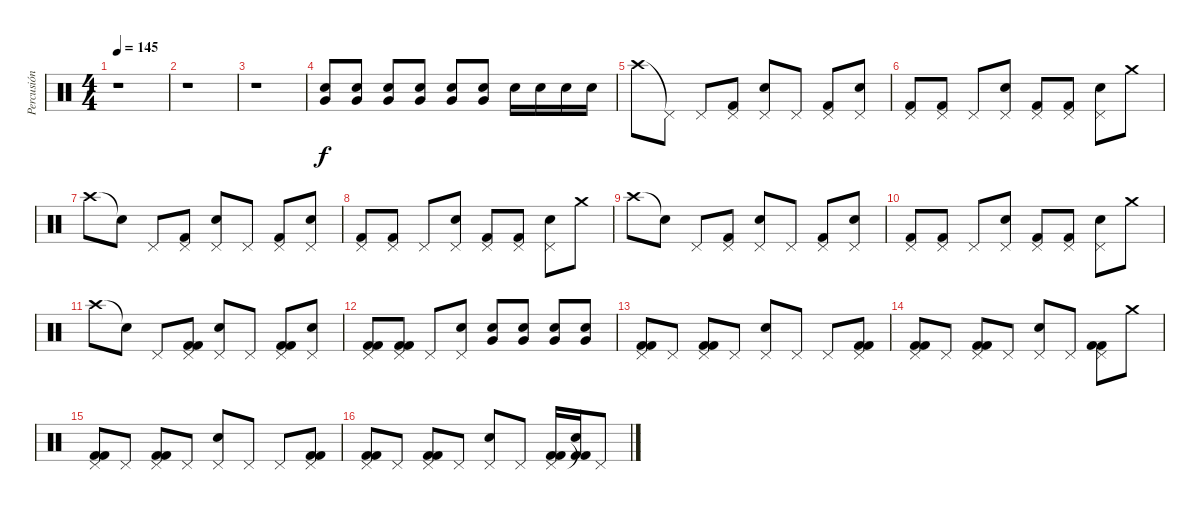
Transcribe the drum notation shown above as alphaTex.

\track ("Percusión" "Percusión") {instrument percussion}
\staff {score}
\articulation defaults
\ts (4 4)
\tempo 145
\clef neutral
\ks c
r.1{dy f} |
r.1 |
r.1 |
("Snare (hit) 2" "Very Low Tom (hit)").8 ("Snare (hit) 2" "Very Low Tom (hit)").8 ("Snare (hit) 2" "Very Low Tom (hit)").8 ("Snare (hit) 2" "Very Low Tom (hit)").8 ("Snare (hit) 2" "Very Low Tom (hit)").8 ("Snare (hit) 2" "Very Low Tom (hit)").8 "Snare (hit) 2".16 "Snare (hit) 2".16 "Snare (hit) 2".16 "Snare (hit) 2".16 |
"Crash high (hit)".8 "Pedal Hi-Hat (hit)"{t}.8 "Pedal Hi-Hat (hit)".8 ("Pedal Hi-Hat (hit)" "Kick (hit) 2").8 ("Pedal Hi-Hat (hit)" "Snare (hit) 2").8 "Pedal Hi-Hat (hit)".8 ("Pedal Hi-Hat (hit)" "Kick (hit) 2").8 ("Pedal Hi-Hat (hit)" "Snare (hit) 2").8 |
("Pedal Hi-Hat (hit)" "Kick (hit) 2").8 ("Pedal Hi-Hat (hit)" "Kick (hit) 2").8 "Pedal Hi-Hat (hit)".8 ("Pedal Hi-Hat (hit)" "Snare (hit) 2").8 ("Pedal Hi-Hat (hit)" "Kick (hit) 2").8 ("Pedal Hi-Hat (hit)" "Kick (hit) 2").8 ("Pedal Hi-Hat (hit)" "Snare (hit) 2").8 "Crash medium (hit)".8 |
"Crash high (hit)".8 "Snare (hit)"{t}.8 "Pedal Hi-Hat (hit)".8 ("Pedal Hi-Hat (hit)" "Kick (hit) 2").8 ("Pedal Hi-Hat (hit)" "Snare (hit) 2").8 "Pedal Hi-Hat (hit)".8 ("Pedal Hi-Hat (hit)" "Kick (hit) 2").8 ("Pedal Hi-Hat (hit)" "Snare (hit) 2").8 |
("Pedal Hi-Hat (hit)" "Kick (hit) 2").8 ("Pedal Hi-Hat (hit)" "Kick (hit) 2").8 "Pedal Hi-Hat (hit)".8 ("Pedal Hi-Hat (hit)" "Snare (hit) 2").8 ("Pedal Hi-Hat (hit)" "Kick (hit) 2").8 ("Pedal Hi-Hat (hit)" "Kick (hit) 2").8 ("Pedal Hi-Hat (hit)" "Snare (hit) 2").8 "Crash medium (hit)".8 |
"Crash high (hit)".8 "Snare (hit)"{t}.8 "Pedal Hi-Hat (hit)".8 ("Pedal Hi-Hat (hit)" "Kick (hit) 2").8 ("Pedal Hi-Hat (hit)" "Snare (hit) 2").8 "Pedal Hi-Hat (hit)".8 ("Pedal Hi-Hat (hit)" "Kick (hit) 2").8 ("Pedal Hi-Hat (hit)" "Snare (hit) 2").8 |
("Pedal Hi-Hat (hit)" "Kick (hit) 2").8 ("Pedal Hi-Hat (hit)" "Kick (hit) 2").8 "Pedal Hi-Hat (hit)".8 ("Pedal Hi-Hat (hit)" "Snare (hit) 2").8 ("Pedal Hi-Hat (hit)" "Kick (hit) 2").8 ("Pedal Hi-Hat (hit)" "Kick (hit) 2").8 ("Pedal Hi-Hat (hit)" "Snare (hit) 2").8 "Crash medium (hit)".8 |
"Crash high (hit)".8 "Snare (hit)"{t}.8 "Pedal Hi-Hat (hit)".8 ("Pedal Hi-Hat (hit)" "Kick (hit) 2" "Kick (hit) 2").8 ("Pedal Hi-Hat (hit)" "Snare (hit) 2").8 "Pedal Hi-Hat (hit)".8 ("Pedal Hi-Hat (hit)" "Kick (hit) 2" "Kick (hit) 2").8 ("Pedal Hi-Hat (hit)" "Snare (hit) 2").8 |
("Pedal Hi-Hat (hit)" "Kick (hit) 2" "Kick (hit) 2").8 ("Pedal Hi-Hat (hit)" "Kick (hit) 2" "Kick (hit) 2").8 "Pedal Hi-Hat (hit)".8 ("Pedal Hi-Hat (hit)" "Snare (hit) 2").8 ("Snare (hit) 2" "Very Low Tom (hit)").8 ("Snare (hit) 2" "Very Low Tom (hit)").8 ("Snare (hit) 2" "Very Low Tom (hit)").8 ("Snare (hit) 2" "Very Low Tom (hit)").8 |
("Pedal Hi-Hat (hit)" "Kick (hit) 2" "Kick (hit) 2").8 "Pedal Hi-Hat (hit)".8 ("Pedal Hi-Hat (hit)" "Kick (hit) 2" "Kick (hit) 2").8 "Pedal Hi-Hat (hit)".8 ("Pedal Hi-Hat (hit)" "Snare (hit) 2").8 "Pedal Hi-Hat (hit)".8 "Pedal Hi-Hat (hit)".8 ("Pedal Hi-Hat (hit)" "Kick (hit) 2" "Kick (hit) 2").8 |
("Pedal Hi-Hat (hit)" "Kick (hit) 2" "Kick (hit) 2").8 "Pedal Hi-Hat (hit)".8 ("Pedal Hi-Hat (hit)" "Kick (hit) 2" "Kick (hit) 2").8 "Pedal Hi-Hat (hit)".8 ("Pedal Hi-Hat (hit)" "Snare (hit) 2").8 "Pedal Hi-Hat (hit)".8 ("Pedal Hi-Hat (hit)" "Kick (hit) 2" "Kick (hit) 2").8 "Crash medium (hit)".8 |
("Pedal Hi-Hat (hit)" "Kick (hit) 2" "Kick (hit) 2").8 "Pedal Hi-Hat (hit)".8 ("Pedal Hi-Hat (hit)" "Kick (hit) 2" "Kick (hit) 2").8 "Pedal Hi-Hat (hit)".8 ("Pedal Hi-Hat (hit)" "Snare (hit) 2").8 "Pedal Hi-Hat (hit)".8 "Pedal Hi-Hat (hit)".8 ("Pedal Hi-Hat (hit)" "Kick (hit) 2" "Kick (hit) 2").8 |
("Pedal Hi-Hat (hit)" "Kick (hit) 2" "Kick (hit) 2").8 "Pedal Hi-Hat (hit)".8 ("Pedal Hi-Hat (hit)" "Kick (hit) 2" "Kick (hit) 2").8 "Pedal Hi-Hat (hit)".8 ("Pedal Hi-Hat (hit)" "Snare (hit) 2").8 "Pedal Hi-Hat (hit)".8 ("Pedal Hi-Hat (hit)" "Kick (hit) 2" "Kick (hit) 2").16 ("Snare (hit)"{t} "Kick (hit) 2" "Kick (hit) 2").16 "Pedal Hi-Hat (hit)".8
